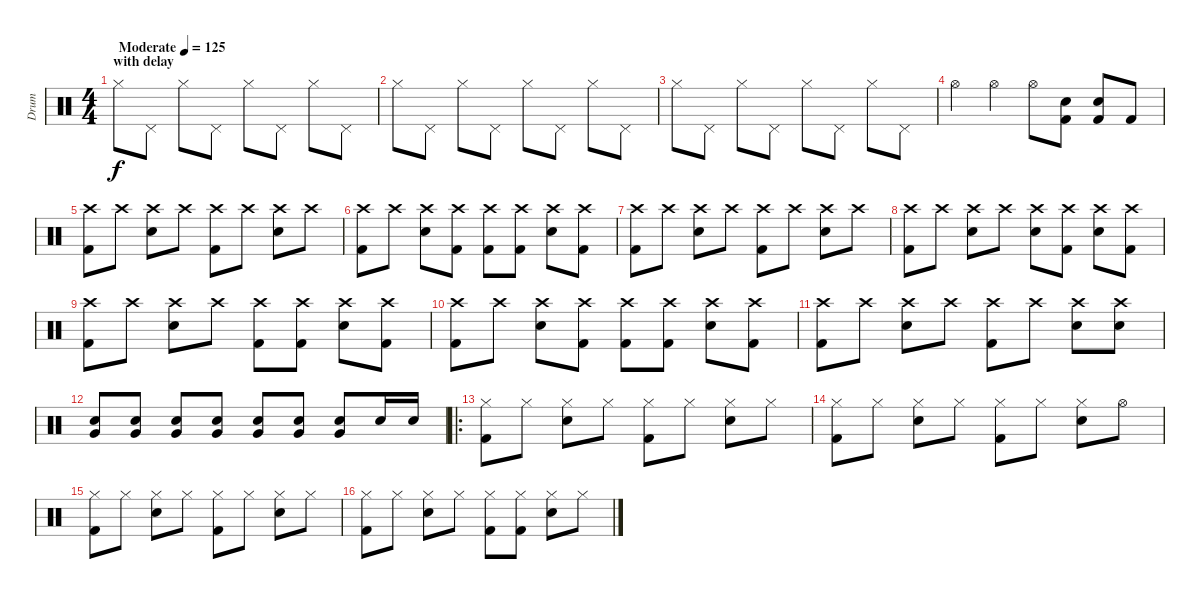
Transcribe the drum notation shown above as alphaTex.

\track ("Drum" "Drum") {instrument percussion}
\staff {score}
\articulation defaults
\ts (4 4)
\section ("" "with delay")
\tempo (125 "Moderate")
\clef neutral
\ks c "Hi-Hat (closed)".8{dy f} "Pedal Hi-Hat (hit)".8 "Hi-Hat (closed)".8 "Pedal Hi-Hat (hit)".8 "Hi-Hat (closed)".8 "Pedal Hi-Hat (hit)".8 "Hi-Hat (closed)".8 "Pedal Hi-Hat (hit)".8
|
"Hi-Hat (closed)".8 "Pedal Hi-Hat (hit)".8 "Hi-Hat (closed)".8 "Pedal Hi-Hat (hit)".8 "Hi-Hat (closed)".8 "Pedal Hi-Hat (hit)".8 "Hi-Hat (closed)".8 "Pedal Hi-Hat (hit)".8 |
"Hi-Hat (closed)".8 "Pedal Hi-Hat (hit)".8 "Hi-Hat (closed)".8 "Pedal Hi-Hat (hit)".8 "Hi-Hat (closed)".8 "Pedal Hi-Hat (hit)".8 "Hi-Hat (closed)".8 "Pedal Hi-Hat (hit)".8 |
"Hi-Hat (open)".4 "Hi-Hat (open)".4 "Hi-Hat (open)".8 ("Electric Snare (hit)" "Kick (hit) 2").8 ("Electric Snare (hit)" "Kick (hit) 2").8 "Kick (hit) 2".8 |
("Kick (hit) 2" "Crash high (hit)").8 "Crash high (hit)".8 ("Electric Snare (hit)" "Crash high (hit)").8 "Crash high (hit)".8 ("Kick (hit) 2" "Crash high (hit)").8 "Crash high (hit)".8 ("Electric Snare (hit)" "Crash high (hit)").8 "Crash high (hit)".8 |
("Kick (hit) 2" "Crash high (hit)").8 "Crash high (hit)".8 ("Electric Snare (hit)" "Crash high (hit)").8 ("Kick (hit) 2" "Crash high (hit)").8 ("Kick (hit) 2" "Crash high (hit)").8 ("Kick (hit) 2" "Crash high (hit)").8 ("Electric Snare (hit)" "Crash high (hit)").8 ("Kick (hit) 2" "Crash high (hit)").8 |
("Kick (hit) 2" "Crash high (hit)").8 "Crash high (hit)".8 ("Electric Snare (hit)" "Crash high (hit)").8 "Crash high (hit)".8 ("Kick (hit) 2" "Crash high (hit)").8 "Crash high (hit)".8 ("Electric Snare (hit)" "Crash high (hit)").8 "Crash high (hit)".8 |
("Kick (hit) 2" "Crash high (hit)").8 "Crash high (hit)".8 ("Electric Snare (hit)" "Crash high (hit)").8 "Crash high (hit)".8 ("Electric Snare (hit)" "Crash high (hit)").8 ("Kick (hit) 2" "Crash high (hit)").8 ("Electric Snare (hit)" "Crash high (hit)").8 ("Kick (hit) 2" "Crash high (hit)").8 |
("Kick (hit) 2" "Crash high (hit)").8 "Crash high (hit)".8 ("Electric Snare (hit)" "Crash high (hit)").8 "Crash high (hit)".8 ("Kick (hit) 2" "Crash high (hit)").8 ("Kick (hit) 2" "Crash high (hit)").8 ("Electric Snare (hit)" "Crash high (hit)").8 ("Kick (hit) 2" "Crash high (hit)").8 |
("Kick (hit) 2" "Crash high (hit)").8 "Crash high (hit)".8 ("Electric Snare (hit)" "Crash high (hit)").8 ("Kick (hit) 2" "Crash high (hit)").8 ("Kick (hit) 2" "Crash high (hit)").8 ("Kick (hit) 2" "Crash high (hit)").8 ("Electric Snare (hit)" "Crash high (hit)").8 ("Kick (hit) 2" "Crash high (hit)").8 |
("Kick (hit) 2" "Crash high (hit)").8 "Crash high (hit)".8 ("Electric Snare (hit)" "Crash high (hit)").8 "Crash high (hit)".8 ("Kick (hit) 2" "Crash high (hit)").8 "Crash high (hit)".8 ("Electric Snare (hit)" "Crash high (hit)").8 ("Electric Snare (hit)" "Crash high (hit)").8 |
("Electric Snare (hit)" "Very Low Tom (hit)").8 ("Electric Snare (hit)" "Very Low Tom (hit)").8 ("Electric Snare (hit)" "Very Low Tom (hit)").8 ("Electric Snare (hit)" "Very Low Tom (hit)").8 ("Electric Snare (hit)" "Very Low Tom (hit)").8 ("Electric Snare (hit)" "Very Low Tom (hit)").8 ("Electric Snare (hit)" "Very Low Tom (hit)").8 "Electric Snare (hit)".16 "Electric Snare (hit)".16 |
\ro
("Kick (hit) 2" "Hi-Hat (closed)").8 "Hi-Hat (closed)".8 ("Electric Snare (hit)" "Hi-Hat (closed)").8 "Hi-Hat (closed)".8 ("Kick (hit) 2" "Hi-Hat (closed)").8 "Hi-Hat (closed)".8 ("Electric Snare (hit)" "Hi-Hat (closed)").8 "Hi-Hat (closed)".8 |
("Kick (hit) 2" "Hi-Hat (closed)").8 "Hi-Hat (closed)".8 ("Electric Snare (hit)" "Hi-Hat (closed)").8 "Hi-Hat (closed)".8 ("Kick (hit) 2" "Hi-Hat (closed)").8 "Hi-Hat (closed)".8 ("Electric Snare (hit)" "Hi-Hat (closed)").8 "Hi-Hat (open)".8 |
("Kick (hit) 2" "Hi-Hat (closed)").8 "Hi-Hat (closed)".8 ("Electric Snare (hit)" "Hi-Hat (closed)").8 "Hi-Hat (closed)".8 ("Kick (hit) 2" "Hi-Hat (closed)").8 "Hi-Hat (closed)".8 ("Electric Snare (hit)" "Hi-Hat (closed)").8 "Hi-Hat (closed)".8 |
("Kick (hit) 2" "Hi-Hat (closed)").8 "Hi-Hat (closed)".8 ("Electric Snare (hit)" "Hi-Hat (closed)").8 "Hi-Hat (closed)".8 ("Kick (hit) 2" "Hi-Hat (closed)").8 ("Kick (hit) 2" "Hi-Hat (closed)").8 ("Electric Snare (hit)" "Hi-Hat (closed)").8 "Hi-Hat (closed)".8
